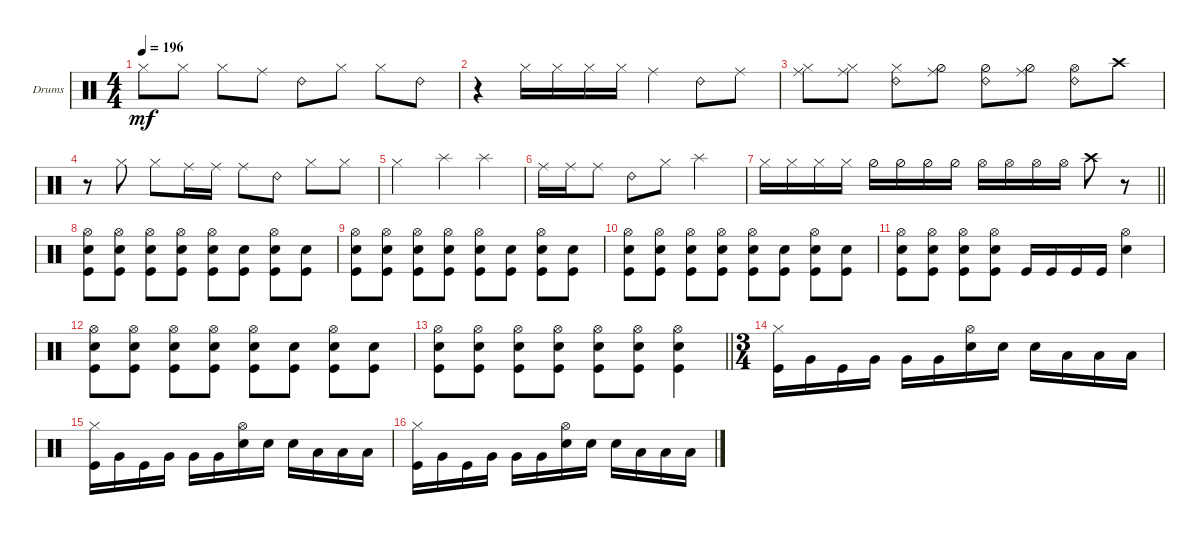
\defaultSystemsLayout 4
\bracketExtendMode groupsimilarinstruments
\firstSystemTrackNameOrientation horizontal
\otherSystemsTrackNameOrientation horizontal
\track ("Drumkit" "Drums") {instrument percussion}
\staff {score}
\articulation defaults
\ts (4 4)
\tempo 196
\clef neutral
\scale
0.333333
\ks c "Hi-Hat (closed)".8{dy mf} "Hi-Hat (closed)".8 "Hi-Hat (closed)".8 "Ride (middle)".8 "Ride (bell) 2".8 "Hi-Hat (closed)".8 "Hi-Hat (closed)".8 "Ride (bell) 2".8
|
\scale
0.333333 r.4 "Hi-Hat (closed)".16 "Hi-Hat (closed)".16 "Hi-Hat (closed)".16 "Hi-Hat (closed)".16 "Ride (middle)".4 "Ride (bell) 2".8 "Ride (middle)".8 |
\scale
0.333333 ("Ride (middle)" "Hi-Hat (closed)").8 ("Ride (middle)" "Hi-Hat (closed)").8 ("Ride (bell) 2" "Hi-Hat (closed)").8 ("Ride (middle)" "Hi-Hat (half)").8 ("Ride (bell) 2" "Hi-Hat (half)").8 ("Ride (middle)" "Hi-Hat (half)").8 ("Ride (bell) 2" "Hi-Hat (open)").8 "Crash high (hit)".8 |
\scale
0.333333 r.8 "Hi-Hat (closed)".8 "Hi-Hat (closed)".8 "Ride (middle)".16 "Ride (middle)".16 "Ride (middle)".8 "Ride (bell) 2".8 "Hi-Hat (closed)".8 "Hi-Hat (closed)".8 |
\scale
0.333333 "Hi-Hat (closed)".2 "Splash (hit)".4 "Splash (hit)".4 |
\scale
0.333333 "Ride (middle)".16 "Ride (middle)".16 "Ride (middle)".8 "Ride (bell) 2".8 "Hi-Hat (closed)".8 "Splash (hit)".2 |
\scale
0.333333
\barLineRight lightlight "Hi-Hat (closed)".16 "Hi-Hat (closed)".16 "Hi-Hat (closed)".16 "Hi-Hat (closed)".16 "Hi-Hat (half)".16 "Hi-Hat (half)".16 "Hi-Hat (half)".16 "Hi-Hat (half)".16 "Hi-Hat (open)".16 "Hi-Hat (open)".16 "Hi-Hat (open)".16 "Hi-Hat (open)".16 "Crash high (hit)".8
r.8 |
\scale
0.333333 ("Kick (hit)" "Snare (hit) 2" "Hi-Hat (open)").8 ("Kick (hit)" "Snare (hit) 2" "Hi-Hat (open)").8 ("Kick (hit)" "Snare (hit) 2" "Hi-Hat (open)").8 ("Kick (hit)" "Snare (hit) 2" "Hi-Hat (open)").8 ("Kick (hit)" "Snare (hit) 2" "Hi-Hat (open)").8 ("Kick (hit)" "Snare (hit) 2").8 ("Kick (hit)" "Snare (hit) 2" "Hi-Hat (open)").8 ("Kick (hit)" "Snare (hit) 2").8 |
\scale
0.333333 ("Kick (hit)" "Snare (hit) 2" "Hi-Hat (open)").8 ("Kick (hit)" "Snare (hit) 2" "Hi-Hat (open)").8 ("Kick (hit)" "Snare (hit) 2" "Hi-Hat (open)").8 ("Kick (hit)" "Snare (hit) 2" "Hi-Hat (open)").8 ("Kick (hit)" "Snare (hit) 2" "Hi-Hat (open)").8 ("Kick (hit)" "Snare (hit) 2").8 ("Kick (hit)" "Snare (hit) 2" "Hi-Hat (open)").8 ("Kick (hit)" "Snare (hit) 2").8 |
\scale
0.333333 ("Kick (hit)" "Snare (hit) 2" "Hi-Hat (open)").8 ("Kick (hit)" "Snare (hit) 2" "Hi-Hat (open)").8 ("Kick (hit)" "Snare (hit) 2" "Hi-Hat (open)").8 ("Kick (hit)" "Snare (hit) 2" "Hi-Hat (open)").8 ("Kick (hit)" "Snare (hit) 2" "Hi-Hat (open)").8 ("Kick (hit)" "Snare (hit) 2").8 ("Kick (hit)" "Snare (hit) 2" "Hi-Hat (open)").8 ("Kick (hit)" "Snare (hit) 2").8 |
\scale
0.333333 ("Kick (hit)" "Snare (hit) 2" "Hi-Hat (open)").8 ("Kick (hit)" "Snare (hit) 2" "Hi-Hat (open)").8 ("Kick (hit)" "Snare (hit) 2" "Hi-Hat (open)").8 ("Kick (hit)" "Snare (hit) 2" "Hi-Hat (open)").8 "Kick (hit)".16 "Kick (hit)".16 "Kick (hit)".16 "Kick (hit)".16 ("Snare (hit) 2" "Hi-Hat (open)").4 |
\scale
0.333333 ("Kick (hit)" "Snare (hit) 2" "Hi-Hat (open)").8 ("Kick (hit)" "Snare (hit) 2" "Hi-Hat (open)").8 ("Kick (hit)" "Snare (hit) 2" "Hi-Hat (open)").8 ("Kick (hit)" "Snare (hit) 2" "Hi-Hat (open)").8 ("Kick (hit)" "Snare (hit) 2" "Hi-Hat (open)").8 ("Kick (hit)" "Snare (hit) 2").8 ("Kick (hit)" "Snare (hit) 2" "Hi-Hat (open)").8 ("Kick (hit)" "Snare (hit) 2").8 |
\scale
0.333333
\barLineRight lightlight
("Kick (hit)" "Snare (hit) 2" "Hi-Hat (open)").8 ("Kick (hit)" "Snare (hit) 2" "Hi-Hat (open)").8 ("Kick (hit)" "Snare (hit) 2" "Hi-Hat (open)").8 ("Kick (hit)" "Snare (hit) 2" "Hi-Hat (open)").8 ("Kick (hit)" "Snare (hit) 2" "Hi-Hat (open)").8 ("Kick (hit)" "Snare (hit) 2" "Hi-Hat (open)").8 ("Kick (hit)" "Snare (hit) 2" "Hi-Hat (open)").4 |
\ts (3 4)
\scale
0.333333 ("Kick (hit)" "Hi-Hat (closed)").16 "Very Low Tom (hit)".16 "Kick (hit)".16 "Very Low Tom (hit)".16 "Very Low Tom (hit)".16 "Very Low Tom (hit)".16 ("Snare (hit) 2" "Hi-Hat (open)").16 "Snare (hit) 2".16 "Snare (hit) 2".16 "Low Tom (hit)".16 "Low Tom (hit)".16 "Low Tom (hit)".16 |
\scale
0.333333 ("Kick (hit)" "Hi-Hat (closed)").16 "Very Low Tom (hit)".16 "Kick (hit)".16 "Very Low Tom (hit)".16 "Very Low Tom (hit)".16 "Very Low Tom (hit)".16 ("Snare (hit) 2" "Hi-Hat (open)").16 "Snare (hit) 2".16 "Snare (hit) 2".16 "Low Tom (hit)".16 "Low Tom (hit)".16 "Low Tom (hit)".16 |
\scale
0.333333 ("Kick (hit)" "Hi-Hat (closed)").16 "Very Low Tom (hit)".16 "Kick (hit)".16 "Very Low Tom (hit)".16 "Very Low Tom (hit)".16 "Very Low Tom (hit)".16 ("Snare (hit) 2" "Hi-Hat (open)").16 "Snare (hit) 2".16 "Snare (hit) 2".16 "Low Tom (hit)".16 "Low Tom (hit)".16 "Low Tom (hit)".16
